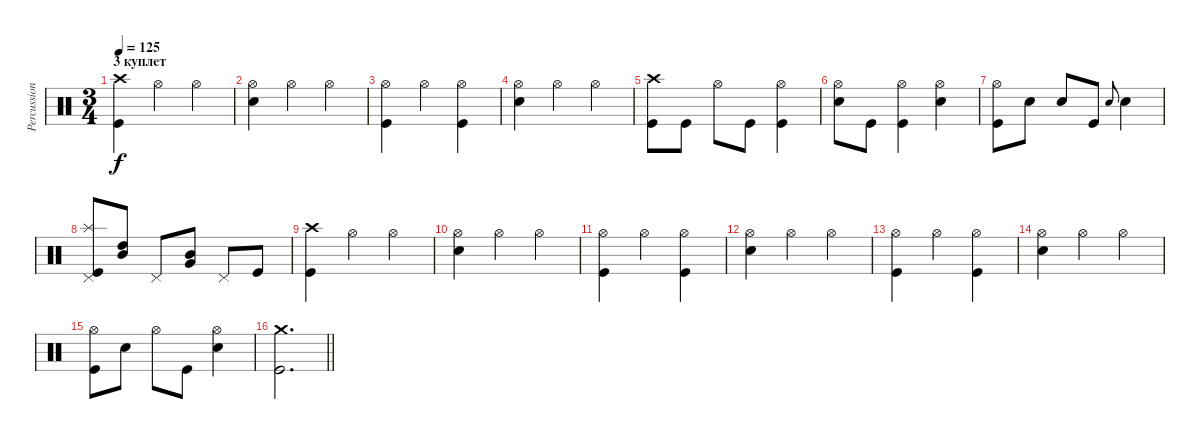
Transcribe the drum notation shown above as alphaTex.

\track ("Percussion" "Percussion") {instrument percussion}
\staff {score}
\articulation defaults
\ts (3 4)
\section ("" "3 куплет")
\tempo 125
\clef neutral
\ks c
("Crash high (hit)" "Kick (hit)").4{dy f} "Hi-Hat (open)".4 "Hi-Hat (open)".4 |
("Hi-Hat (open)" "Snare (hit) 2").4 "Hi-Hat (open)".4 "Hi-Hat (open)".4 |
("Hi-Hat (open)" "Kick (hit)").4 "Hi-Hat (open)".4 ("Hi-Hat (open)" "Kick (hit)").4 |
("Hi-Hat (open)" "Snare (hit) 2").4 "Hi-Hat (open)".4 "Hi-Hat (open)".4 |
("Crash high (hit)" "Kick (hit)").8 "Kick (hit)".8 "Hi-Hat (open)".8 "Kick (hit)".8 ("Hi-Hat (open)" "Kick (hit)").4 |
("Hi-Hat (open)" "Snare (hit) 2").8 "Kick (hit)".8 ("Hi-Hat (open)" "Kick (hit)").4 ("Hi-Hat (open)" "Snare (hit) 2").4 |
("Hi-Hat (open)" "Kick (hit)").8 "Snare (hit) 2".8 "Snare (hit) 2".8 "Kick (hit)".8 "Snare (hit) 2".8{gr onbeat} "Snare (hit) 2".4 |
("Splash (hit)" "Pedal Hi-Hat (hit)" "Kick (hit)").8 ("High Tom (hit)" "Mid Tom (hit)").8{bu 240} "Pedal Hi-Hat (hit)".8 ("Mid Tom (hit)" "Very Low Tom (hit)").8{bu 240} "Pedal Hi-Hat (hit)".8 "Kick (hit)".8 |
("Crash high (hit)" "Kick (hit)").4 "Hi-Hat (open)".4 "Hi-Hat (open)".4 |
("Hi-Hat (open)" "Snare (hit) 2").4 "Hi-Hat (open)".4 "Hi-Hat (open)".4 |
("Hi-Hat (open)" "Kick (hit)").4 "Hi-Hat (open)".4 ("Hi-Hat (open)" "Kick (hit)").4 |
("Hi-Hat (open)" "Snare (hit) 2").4 "Hi-Hat (open)".4 "Hi-Hat (open)".4 |
("Hi-Hat (open)" "Kick (hit)").4 "Hi-Hat (open)".4 ("Hi-Hat (open)" "Kick (hit)").4 |
("Hi-Hat (open)" "Snare (hit) 2").4 "Hi-Hat (open)".4 "Hi-Hat (open)".4 |
("Hi-Hat (open)" "Kick (hit)").8 "Snare (hit) 2".8 "Hi-Hat (open)".8 "Kick (hit)".8 ("Hi-Hat (open)" "Snare (hit) 2").4 |
\barLineRight lightlight
("Crash medium (hit)" "Kick (hit)").2{d}
